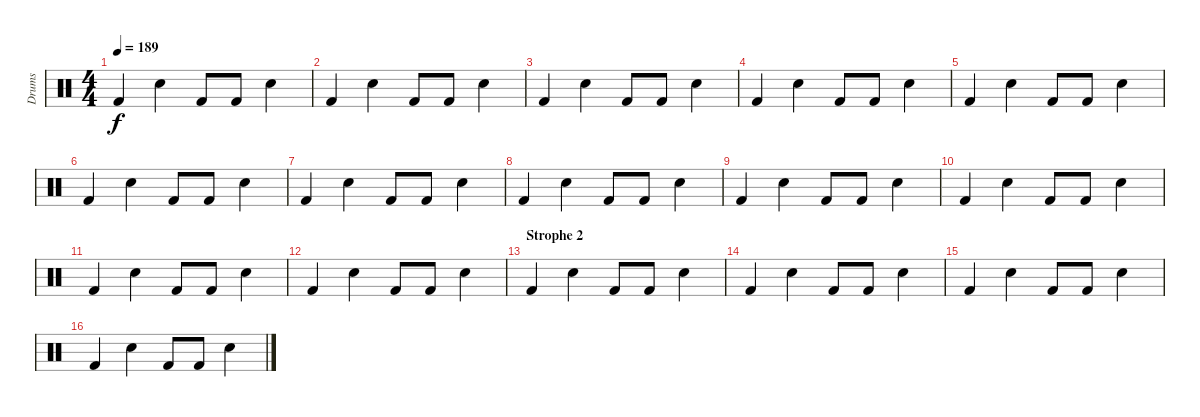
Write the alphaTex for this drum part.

\track ("Drums" "Drums") {instrument percussion}
\staff {score}
\articulation defaults
\ts (4 4)
\tempo 189
\clef neutral
\ks c "Kick (hit) 2".4{dy f} "Electric Snare (hit)".4 "Kick (hit) 2".8 "Kick (hit) 2".8 "Electric Snare (hit)".4
|
"Kick (hit) 2".4 "Electric Snare (hit)".4 "Kick (hit) 2".8 "Kick (hit) 2".8 "Electric Snare (hit)".4 |
"Kick (hit) 2".4 "Electric Snare (hit)".4 "Kick (hit) 2".8 "Kick (hit) 2".8 "Electric Snare (hit)".4 |
"Kick (hit) 2".4 "Electric Snare (hit)".4 "Kick (hit) 2".8 "Kick (hit) 2".8 "Electric Snare (hit)".4 |
"Kick (hit) 2".4 "Electric Snare (hit)".4 "Kick (hit) 2".8 "Kick (hit) 2".8 "Electric Snare (hit)".4 |
"Kick (hit) 2".4 "Electric Snare (hit)".4 "Kick (hit) 2".8 "Kick (hit) 2".8 "Electric Snare (hit)".4 |
"Kick (hit) 2".4 "Electric Snare (hit)".4 "Kick (hit) 2".8 "Kick (hit) 2".8 "Electric Snare (hit)".4 |
"Kick (hit) 2".4 "Electric Snare (hit)".4 "Kick (hit) 2".8 "Kick (hit) 2".8 "Electric Snare (hit)".4 |
"Kick (hit) 2".4 "Electric Snare (hit)".4 "Kick (hit) 2".8 "Kick (hit) 2".8 "Electric Snare (hit)".4 |
"Kick (hit) 2".4 "Electric Snare (hit)".4 "Kick (hit) 2".8 "Kick (hit) 2".8 "Electric Snare (hit)".4 |
"Kick (hit) 2".4 "Electric Snare (hit)".4 "Kick (hit) 2".8 "Kick (hit) 2".8 "Electric Snare (hit)".4 |
"Kick (hit) 2".4 "Electric Snare (hit)".4 "Kick (hit) 2".8 "Kick (hit) 2".8 "Electric Snare (hit)".4 |
\section ("" "Strophe 2")
"Kick (hit) 2".4 "Electric Snare (hit)".4 "Kick (hit) 2".8 "Kick (hit) 2".8 "Electric Snare (hit)".4 |
"Kick (hit) 2".4 "Electric Snare (hit)".4 "Kick (hit) 2".8 "Kick (hit) 2".8 "Electric Snare (hit)".4 |
"Kick (hit) 2".4 "Electric Snare (hit)".4 "Kick (hit) 2".8 "Kick (hit) 2".8 "Electric Snare (hit)".4 |
"Kick (hit) 2".4 "Electric Snare (hit)".4 "Kick (hit) 2".8 "Kick (hit) 2".8 "Electric Snare (hit)".4
